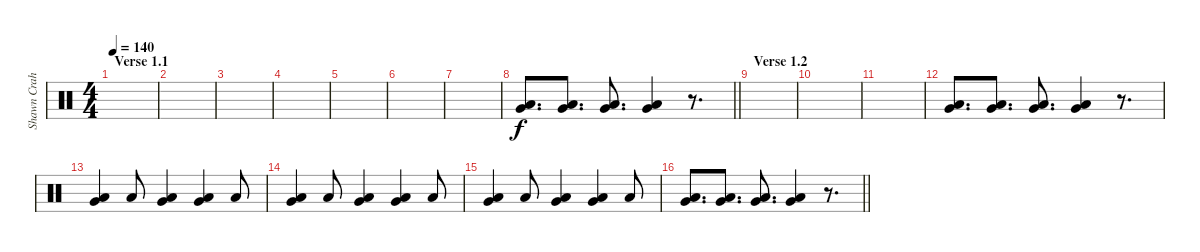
\track ("Shawn Crahan" "Shawn Crah") {instrument percussion}
\staff {score}
\articulation defaults
\ts (4 4)
\section ("" "Verse 1.1")
\tempo 140
\clef neutral
\ks c
|
|
|
|
|
|
|
\barLineRight lightlight
("Very Low Tom (hit)" "Low Floor Tom (hit)").8{d} ("Very Low Tom (hit)" "Low Floor Tom (hit)").8{d} ("Very Low Tom (hit)" "Low Floor Tom (hit)").8{d} ("Very Low Tom (hit)" "Low Floor Tom (hit)").4 r.8{d} |
\section ("" "Verse 1.2")
|
|
|
("Very Low Tom (hit)" "Low Floor Tom (hit)").8{d} ("Very Low Tom (hit)" "Low Floor Tom (hit)").8{d} ("Very Low Tom (hit)" "Low Floor Tom (hit)").8{d} ("Very Low Tom (hit)" "Low Floor Tom (hit)").4 r.8{d} |
("Very Low Tom (hit)" "Low Floor Tom (hit)").4 "Low Floor Tom (hit)".8 ("Very Low Tom (hit)" "Low Floor Tom (hit)").4 ("Very Low Tom (hit)" "Low Floor Tom (hit)").4 "Low Floor Tom (hit)".8 |
("Very Low Tom (hit)" "Low Floor Tom (hit)").4 "Low Floor Tom (hit)".8 ("Very Low Tom (hit)" "Low Floor Tom (hit)").4 ("Very Low Tom (hit)" "Low Floor Tom (hit)").4 "Low Floor Tom (hit)".8 |
("Very Low Tom (hit)" "Low Floor Tom (hit)").4 "Low Floor Tom (hit)".8 ("Very Low Tom (hit)" "Low Floor Tom (hit)").4 ("Very Low Tom (hit)" "Low Floor Tom (hit)").4 "Low Floor Tom (hit)".8 |
\barLineRight lightlight
("Very Low Tom (hit)" "Low Floor Tom (hit)").8{d} ("Very Low Tom (hit)" "Low Floor Tom (hit)").8{d} ("Very Low Tom (hit)" "Low Floor Tom (hit)").8{d} ("Very Low Tom (hit)" "Low Floor Tom (hit)").4 r.8{d}
